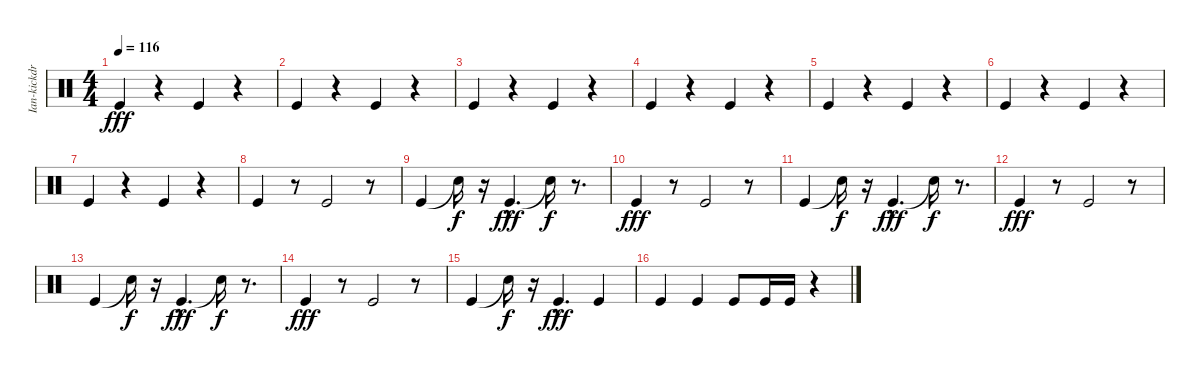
\track ("Ian-kickdrum" "Ian-kickdr") {instrument percussion}
\staff {score}
\articulation defaults
\ts (4 4)
\tempo 116
\clef neutral
\ks c "Kick (hit)".4{dy fff}
r.4 "Kick (hit)".4 r.4 |
"Kick (hit)".4 r.4 "Kick (hit)".4 r.4 |
"Kick (hit)".4 r.4 "Kick (hit)".4 r.4 |
"Kick (hit)".4 r.4 "Kick (hit)".4 r.4 |
"Kick (hit)".4 r.4 "Kick (hit)".4 r.4 |
"Kick (hit)".4 r.4 "Kick (hit)".4 r.4 |
"Kick (hit)".4 r.4 "Kick (hit)".4 r.4 |
"Kick (hit)".4 r.8 "Kick (hit)".2 r.8 |
"Kick (hit)".4 "Snare (hit)"{t}.16{dy f} r.16 "Kick (hit)"{hac}.4{d dy fff} "Snare (hit)"{t}.16{dy f} r.8{d} |
"Kick (hit)".4{dy fff} r.8 "Kick (hit)".2 r.8 |
"Kick (hit)".4 "Snare (hit)"{t}.16{dy f} r.16 "Kick (hit)"{hac}.4{d dy fff} "Snare (hit)"{t}.16{dy f} r.8{d} |
"Kick (hit)".4{dy fff} r.8 "Kick (hit)".2 r.8 |
"Kick (hit)".4 "Snare (hit)"{t}.16{dy f} r.16 "Kick (hit)"{hac}.4{d dy fff} "Snare (hit)"{t}.16{dy f} r.8{d} |
"Kick (hit)".4{dy fff} r.8 "Kick (hit)".2 r.8 |
"Kick (hit)".4 "Snare (hit)"{t}.16{dy f} r.16 "Kick (hit)"{hac}.4{d dy fff} "Kick (hit)".4 |
"Kick (hit)".4 "Kick (hit)".4 "Kick (hit)".8 "Kick (hit)".16 "Kick (hit)".16 r.4
